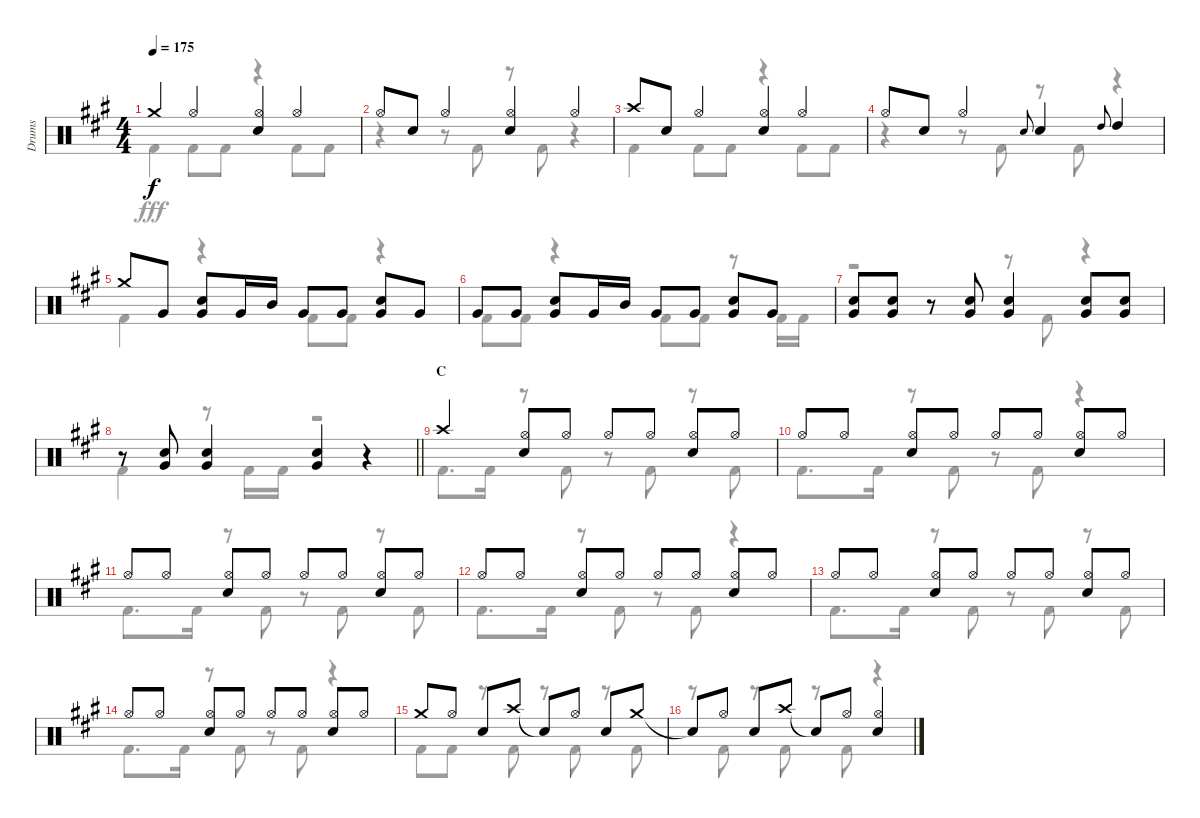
\track ("Drums" "Drums") {instrument percussion}
\staff {score}
\articulation defaults
\voice
\ts (4 4)
\tempo 175
\clef neutral
\ks a "Crash medium (hit)".4{dy f} "Hi-Hat (open)".4
("Hi-Hat (open)" "Snare (hit) 2").4 "Hi-Hat (open)".4 |
"Hi-Hat (open)".8 "Snare (hit) 2".8 "Hi-Hat (open)".4 ("Hi-Hat (open)" "Snare (hit) 2").4 "Hi-Hat (open)".4 |
"Crash high (hit)".8 "Snare (hit) 2".8 "Hi-Hat (open)".4 ("Hi-Hat (open)" "Snare (hit) 2").4 "Hi-Hat (open)".4 |
"Hi-Hat (open)".8 "Snare (hit) 2".8 "Hi-Hat (open)".4 "Snare (hit) 2".8{gr onbeat} "Snare (hit) 2".4 "High Tom (hit)".8{gr onbeat} "High Tom (hit)".4 |
"Crash medium (hit)".8 "Very Low Tom (hit)".8 ("Snare (hit) 2" "Very Low Tom (hit)").8 "Very Low Tom (hit)".16 "Mid Tom (hit)".16 "Very Low Tom (hit)".8 "Very Low Tom (hit)".8 ("Snare (hit) 2" "Very Low Tom (hit)").8 "Very Low Tom (hit)".8 |
"Very Low Tom (hit)".8 "Very Low Tom (hit)".8 ("Snare (hit) 2" "Very Low Tom (hit)").8 "Very Low Tom (hit)".16 "Mid Tom (hit)".16 "Very Low Tom (hit)".8 "Very Low Tom (hit)".8 ("Snare (hit) 2" "Very Low Tom (hit)").8 "Very Low Tom (hit)".8 |
("Snare (hit) 2" "Very Low Tom (hit)").8 ("Snare (hit) 2" "Very Low Tom (hit)").8 r.8 ("Snare (hit) 2" "Very Low Tom (hit)").8 ("Snare (hit) 2" "Very Low Tom (hit)").4 ("Snare (hit) 2" "Very Low Tom (hit)").8 ("Snare (hit) 2" "Very Low Tom (hit)").8 |
\barLineRight lightlight
r.8 ("Snare (hit) 2" "Very Low Tom (hit)").8 ("Snare (hit) 2" "Very Low Tom (hit)").4 ("Snare (hit) 2" "Very Low Tom (hit)").4 r.4 |
\section ("" "C")
"Crash high (hit)".4 ("Hi-Hat (open)" "Snare (hit) 2").8 "Hi-Hat (open)".8 "Hi-Hat (open)".8 "Hi-Hat (open)".8 ("Hi-Hat (open)" "Snare (hit) 2").8 "Hi-Hat (open)".8 |
"Hi-Hat (open)".8 "Hi-Hat (open)".8 ("Hi-Hat (open)" "Snare (hit) 2").8 "Hi-Hat (open)".8 "Hi-Hat (open)".8 "Hi-Hat (open)".8 ("Hi-Hat (open)" "Snare (hit) 2").8 "Hi-Hat (open)".8 |
"Hi-Hat (open)".8 "Hi-Hat (open)".8 ("Hi-Hat (open)" "Snare (hit) 2").8 "Hi-Hat (open)".8 "Hi-Hat (open)".8 "Hi-Hat (open)".8 ("Hi-Hat (open)" "Snare (hit) 2").8 "Hi-Hat (open)".8 |
"Hi-Hat (open)".8 "Hi-Hat (open)".8 ("Hi-Hat (open)" "Snare (hit) 2").8 "Hi-Hat (open)".8 "Hi-Hat (open)".8 "Hi-Hat (open)".8 ("Hi-Hat (open)" "Snare (hit) 2").8 "Hi-Hat (open)".8 |
"Hi-Hat (open)".8 "Hi-Hat (open)".8 ("Hi-Hat (open)" "Snare (hit) 2").8 "Hi-Hat (open)".8 "Hi-Hat (open)".8 "Hi-Hat (open)".8 ("Hi-Hat (open)" "Snare (hit) 2").8 "Hi-Hat (open)".8 |
"Hi-Hat (open)".8 "Hi-Hat (open)".8 ("Hi-Hat (open)" "Snare (hit) 2").8 "Hi-Hat (open)".8 "Hi-Hat (open)".8 "Hi-Hat (open)".8 ("Hi-Hat (open)" "Snare (hit) 2").8 "Hi-Hat (open)".8 |
"Crash medium (hit)".8 "Hi-Hat (open)".8 "Snare (hit) 2".8 "Crash high (hit)".8 "Snare (hit)"{t}.8 "Hi-Hat (open)".8 "Snare (hit) 2".8 "Crash medium (hit)".8 |
"Snare (hit)"{t}.8 "Hi-Hat (open)".8 "Snare (hit) 2".8 "Crash high (hit)".8 "Snare (hit)"{t}.8 "Hi-Hat (open)".8 ("Hi-Hat (open)" "Snare (hit) 2").4
\voice
\clef neutral
\ottava regular
\simile none
\ks a "Kick (hit) 2".4{dy fff} "Kick (hit) 2".8 "Kick (hit) 2".8
r.4 "Kick (hit) 2".8 "Kick (hit) 2".8 |
r.4 r.8 "Kick (hit) 2".8 r.8 "Kick (hit) 2".8 r.4 |
"Kick (hit) 2".4 "Kick (hit) 2".8 "Kick (hit) 2".8 r.4 "Kick (hit) 2".8 "Kick (hit) 2".8 |
r.4 r.8 "Kick (hit) 2".8 r.8 "Kick (hit) 2".8 r.4 |
"Kick (hit) 2".4 r.4 "Kick (hit) 2".8 "Kick (hit) 2".8 r.4 |
"Kick (hit) 2".8 "Kick (hit) 2".8 r.4 "Kick (hit) 2".8 "Kick (hit) 2".8 r.8 "Kick (hit) 2".16 "Kick (hit) 2".16 |
r.2 r.8 "Kick (hit) 2".8 r.4 |
\barLineRight lightlight "Kick (hit) 2".4
r.8 "Kick (hit) 2".16 "Kick (hit) 2".16 r.2 |
"Kick (hit) 2".8{d} "Kick (hit) 2".16 r.8 "Kick (hit) 2".8 r.8 "Kick (hit) 2".8 r.8 "Kick (hit) 2".8 |
"Kick (hit) 2".8{d} "Kick (hit) 2".16 r.8 "Kick (hit) 2".8 r.8 "Kick (hit) 2".8 r.4 |
"Kick (hit) 2".8{d} "Kick (hit) 2".16 r.8 "Kick (hit) 2".8 r.8 "Kick (hit) 2".8 r.8 "Kick (hit) 2".8 |
"Kick (hit) 2".8{d} "Kick (hit) 2".16 r.8 "Kick (hit) 2".8 r.8 "Kick (hit) 2".8 r.4 |
"Kick (hit) 2".8{d} "Kick (hit) 2".16 r.8 "Kick (hit) 2".8 r.8 "Kick (hit) 2".8 r.8 "Kick (hit) 2".8 |
"Kick (hit) 2".8{d} "Kick (hit) 2".16 r.8 "Kick (hit) 2".8 r.8 "Kick (hit) 2".8 r.4 |
"Kick (hit) 2".8 "Kick (hit) 2".8 r.8 "Kick (hit) 2".8 r.8 "Kick (hit) 2".8 r.8 "Kick (hit) 2".8 |
r.8 "Kick (hit) 2".8 r.8 "Kick (hit) 2".8 r.8 "Kick (hit) 2".8 r.4
